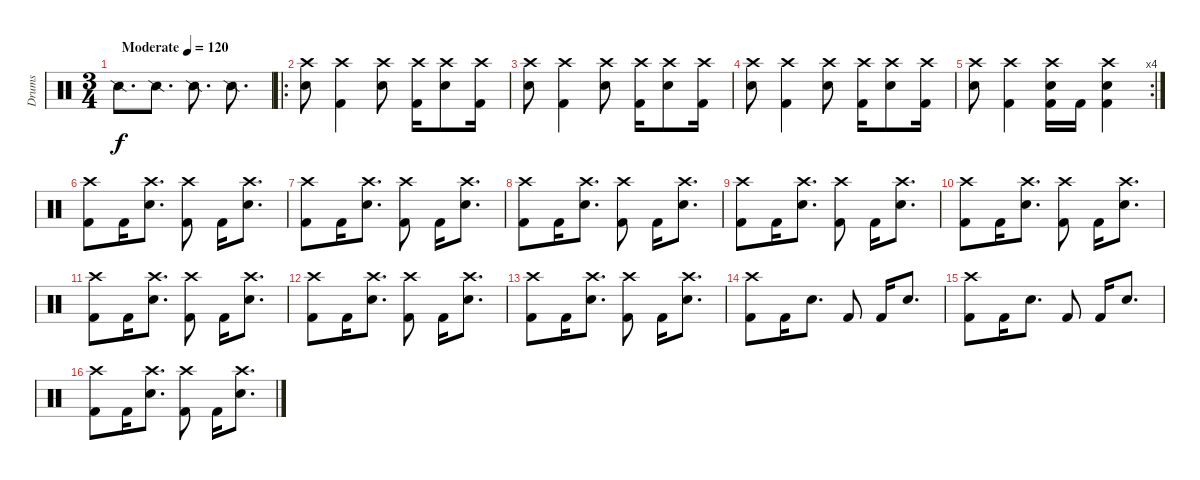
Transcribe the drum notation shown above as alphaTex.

\track ("Drums" "Drums") {instrument percussion}
\staff {score}
\articulation defaults
\ts (3 4)
\tempo (120 "Moderate")
\clef neutral
\ks c "Snare (side stick) 2".8{d dy f} "Snare (side stick) 2".8{d} "Snare (side stick) 2".8{d} "Snare (side stick) 2".8{d}
|
\ro
("Crash high (hit)" "Snare (hit) 2").8 ("Crash high (hit)" "Kick (hit) 2").4 ("Crash high (hit)" "Snare (hit) 2").8 ("Crash high (hit)" "Kick (hit) 2").16 ("Crash high (hit)" "Snare (hit) 2").8 ("Crash high (hit)" "Kick (hit) 2").16 |
("Crash high (hit)" "Snare (hit) 2").8 ("Crash high (hit)" "Kick (hit) 2").4 ("Crash high (hit)" "Snare (hit) 2").8 ("Crash high (hit)" "Kick (hit) 2").16 ("Crash high (hit)" "Snare (hit) 2").8 ("Crash high (hit)" "Kick (hit) 2").16 |
("Crash high (hit)" "Snare (hit) 2").8 ("Crash high (hit)" "Kick (hit) 2").4 ("Crash high (hit)" "Snare (hit) 2").8 ("Crash high (hit)" "Kick (hit) 2").16 ("Crash high (hit)" "Snare (hit) 2").8 ("Crash high (hit)" "Kick (hit) 2").16 |
\rc 4
("Crash high (hit)" "Snare (hit) 2").8 ("Crash high (hit)" "Kick (hit) 2").4 ("Crash high (hit)" "Snare (hit) 2" "Kick (hit) 2").16 "Kick (hit) 2".16 ("Crash high (hit)" "Snare (hit) 2" "Kick (hit) 2").4 |
("Crash high (hit)" "Kick (hit) 2").8 "Kick (hit) 2".16 ("Crash high (hit)" "Snare (hit) 2").8{d} ("Crash high (hit)" "Kick (hit) 2").8 "Kick (hit) 2".16 ("Crash high (hit)" "Snare (hit) 2").8{d} |
("Crash high (hit)" "Kick (hit) 2").8 "Kick (hit) 2".16 ("Crash high (hit)" "Snare (hit) 2").8{d} ("Crash high (hit)" "Kick (hit) 2").8 "Kick (hit) 2".16 ("Crash high (hit)" "Snare (hit) 2").8{d} |
("Crash high (hit)" "Kick (hit) 2").8 "Kick (hit) 2".16 ("Crash high (hit)" "Snare (hit) 2").8{d} ("Crash high (hit)" "Kick (hit) 2").8 "Kick (hit) 2".16 ("Crash high (hit)" "Snare (hit) 2").8{d} |
("Crash high (hit)" "Kick (hit) 2").8 "Kick (hit) 2".16 ("Crash high (hit)" "Snare (hit) 2").8{d} ("Crash high (hit)" "Kick (hit) 2").8 "Kick (hit) 2".16 ("Crash high (hit)" "Snare (hit) 2").8{d} |
("Crash high (hit)" "Kick (hit) 2").8 "Kick (hit) 2".16 ("Crash high (hit)" "Snare (hit) 2").8{d} ("Crash high (hit)" "Kick (hit) 2").8 "Kick (hit) 2".16 ("Crash high (hit)" "Snare (hit) 2").8{d} |
("Crash high (hit)" "Kick (hit) 2").8 "Kick (hit) 2".16 ("Crash high (hit)" "Snare (hit) 2").8{d} ("Crash high (hit)" "Kick (hit) 2").8 "Kick (hit) 2".16 ("Crash high (hit)" "Snare (hit) 2").8{d} |
("Crash high (hit)" "Kick (hit) 2").8 "Kick (hit) 2".16 ("Crash high (hit)" "Snare (hit) 2").8{d} ("Crash high (hit)" "Kick (hit) 2").8 "Kick (hit) 2".16 ("Crash high (hit)" "Snare (hit) 2").8{d} |
("Crash high (hit)" "Kick (hit) 2").8 "Kick (hit) 2".16 ("Crash high (hit)" "Snare (hit) 2").8{d} ("Crash high (hit)" "Kick (hit) 2").8 "Kick (hit) 2".16 ("Crash high (hit)" "Snare (hit) 2").8{d} |
("Crash high (hit)" "Kick (hit) 2").8 "Kick (hit) 2".16 "Snare (hit) 2".8{d} "Kick (hit) 2".8 "Kick (hit) 2".16 "Snare (hit) 2".8{d} |
("Crash high (hit)" "Kick (hit) 2").8 "Kick (hit) 2".16 "Snare (hit) 2".8{d} "Kick (hit) 2".8 "Kick (hit) 2".16 "Snare (hit) 2".8{d} |
("Crash high (hit)" "Kick (hit) 2").8 "Kick (hit) 2".16 ("Crash high (hit)" "Snare (hit) 2").8{d} ("Crash high (hit)" "Kick (hit) 2").8 "Kick (hit) 2".16 ("Crash high (hit)" "Snare (hit) 2").8{d}
